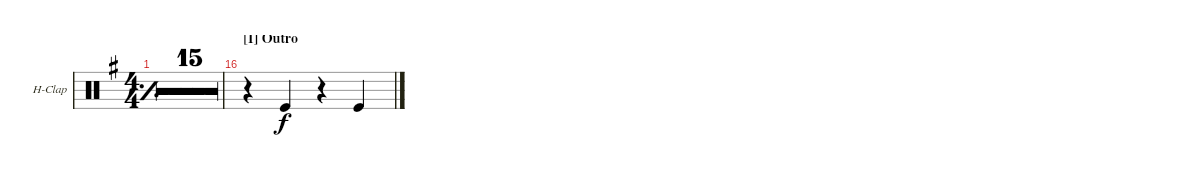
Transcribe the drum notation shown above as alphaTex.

\defaultSystemsLayout 4
\bracketExtendMode groupsimilarinstruments
\firstSystemTrackNameOrientation horizontal
\otherSystemsTrackNameOrientation horizontal
\track ("Hand Clap" "H-Clap") {multiBarRest instrument percussion}
\staff {score}
\articulation defaults
\ts (4 4)
\tempo 98
\clef neutral
\simile simple
\ks g
|
|
|
|
|
|
|
|
|
|
|
|
|
|
|
\section ("I" "Outro")
r.4 "Kick (hit)".4 r.4 "Kick (hit)".4
